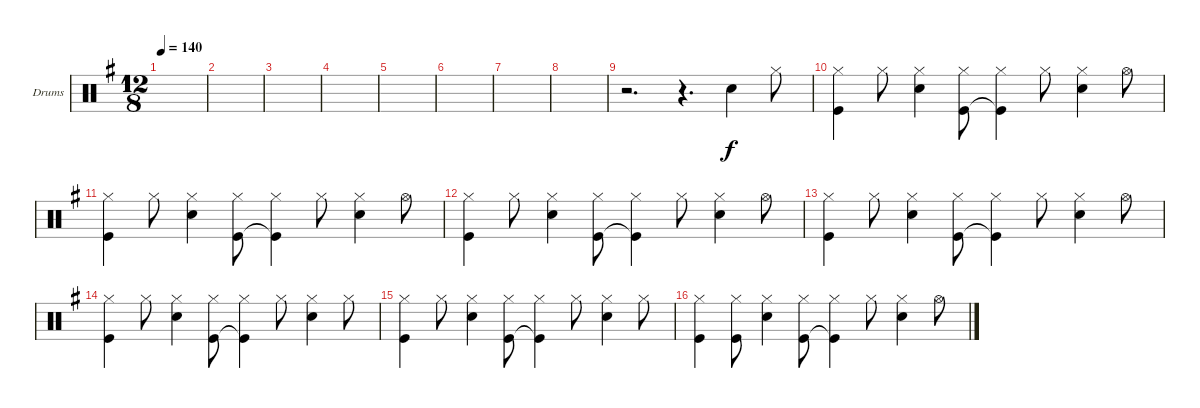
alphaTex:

\defaultSystemsLayout 4
\bracketExtendMode groupsimilarinstruments
\firstSystemTrackNameOrientation horizontal
\otherSystemsTrackNameOrientation horizontal
\track ("Drumkit" "Drums") {instrument percussion}
\staff {score}
\articulation defaults
\ts (12 8)
\tempo 140
\clef neutral
\scale
0.504425
\ks g
|
\scale
0.247788 |
\scale
0.247788 |
|
|
|
|
|
r.2{d} r.4{d} "Snare (hit) 2".4 "Hi-Hat (closed)".8 |
("Hi-Hat (closed)" "Kick (hit)").4 "Hi-Hat (closed)".8 ("Hi-Hat (closed)" "Snare (hit) 2").4 ("Hi-Hat (closed)" "Kick (hit)").8 ("Hi-Hat (closed)" "Kick (hit)"{t}).4 "Hi-Hat (closed)".8 ("Hi-Hat (closed)" "Snare (hit) 2").4 "Hi-Hat (open)".8 |
("Hi-Hat (closed)" "Kick (hit)").4 "Hi-Hat (closed)".8 ("Hi-Hat (closed)" "Snare (hit) 2").4 ("Hi-Hat (closed)" "Kick (hit)").8 ("Hi-Hat (closed)" "Kick (hit)"{t}).4 "Hi-Hat (closed)".8 ("Hi-Hat (closed)" "Snare (hit) 2").4 "Hi-Hat (open)".8 |
("Hi-Hat (closed)" "Kick (hit)").4 "Hi-Hat (closed)".8 ("Hi-Hat (closed)" "Snare (hit) 2").4 ("Hi-Hat (closed)" "Kick (hit)").8 ("Hi-Hat (closed)" "Kick (hit)"{t}).4 "Hi-Hat (closed)".8 ("Hi-Hat (closed)" "Snare (hit) 2").4 "Hi-Hat (open)".8 |
("Hi-Hat (closed)" "Kick (hit)").4 "Hi-Hat (closed)".8 ("Hi-Hat (closed)" "Snare (hit) 2").4 ("Hi-Hat (closed)" "Kick (hit)").8 ("Hi-Hat (closed)" "Kick (hit)"{t}).4 "Hi-Hat (closed)".8 ("Hi-Hat (closed)" "Snare (hit) 2").4 "Hi-Hat (open)".8 |
("Hi-Hat (closed)" "Kick (hit)").4 "Hi-Hat (closed)".8 ("Hi-Hat (closed)" "Snare (hit) 2").4 ("Hi-Hat (closed)" "Kick (hit)").8 ("Hi-Hat (closed)" "Kick (hit)"{t}).4 "Hi-Hat (closed)".8 ("Hi-Hat (closed)" "Snare (hit) 2").4 "Hi-Hat (closed)".8 |
("Hi-Hat (closed)" "Kick (hit)").4 "Hi-Hat (closed)".8 ("Hi-Hat (closed)" "Snare (hit) 2").4 ("Hi-Hat (closed)" "Kick (hit)").8 ("Hi-Hat (closed)" "Kick (hit)"{t}).4 "Hi-Hat (closed)".8 ("Hi-Hat (closed)" "Snare (hit) 2").4 "Hi-Hat (closed)".8 |
("Hi-Hat (closed)" "Kick (hit)").4 ("Hi-Hat (closed)" "Kick (hit)").8 ("Hi-Hat (closed)" "Snare (hit) 2").4 ("Hi-Hat (closed)" "Kick (hit)").8 ("Hi-Hat (closed)" "Kick (hit)"{t}).4 "Hi-Hat (closed)".8 ("Hi-Hat (closed)" "Snare (hit) 2").4 "Hi-Hat (open)".8
